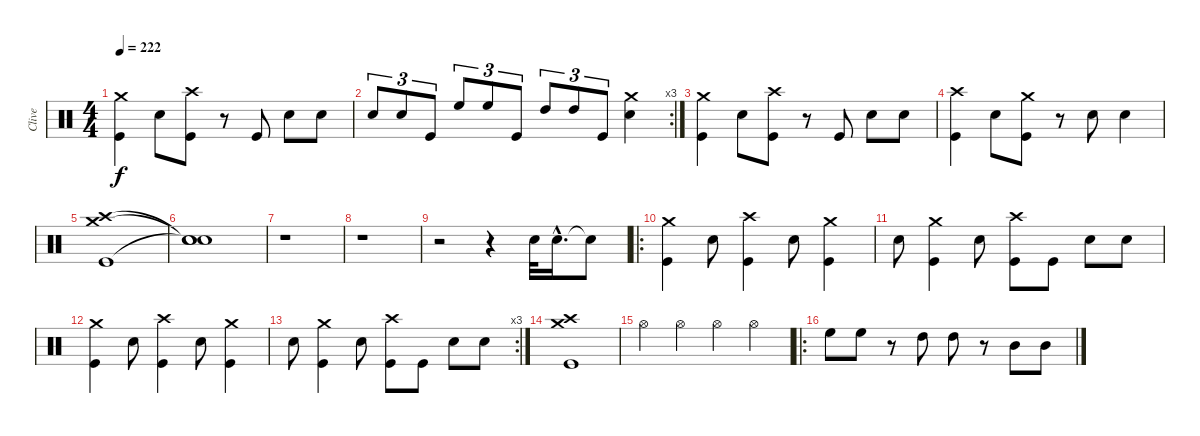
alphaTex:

\track ("Clive" "Clive") {instrument percussion}
\staff {score}
\articulation defaults
\ts (4 4)
\tempo 222
\clef neutral
\ks c
("Crash medium (hit)" "Kick (hit)").4{dy f} "Snare (hit) 2".8 ("Crash high (hit)" "Kick (hit)").8 r.8 "Kick (hit)".8 "Snare (hit) 2".8 "Snare (hit) 2".8 |
\rc 3 "Snare (hit) 2".8{tu (3 2)} "Snare (hit) 2".8{tu (3 2)} "Kick (hit)".8{tu (3 2)} "High Floor Tom (hit)".8{tu (3 2)} "High Floor Tom (hit)".8{tu (3 2)} "Kick (hit)".8{tu (3 2)} "High Tom (hit)".8{tu (3 2)} "High Tom (hit)".8{tu (3 2)} "Kick (hit)".8{tu (3 2)}
("Crash medium (hit)" "Snare (hit) 2").4 |
("Crash medium (hit)" "Kick (hit)").4 "Snare (hit) 2".8 ("Crash high (hit)" "Kick (hit)").8 r.8 "Kick (hit)".8 "Snare (hit) 2".8 "Snare (hit) 2".8 |
("Crash high (hit)" "Kick (hit)").4 "Snare (hit) 2".8 ("Crash medium (hit)" "Kick (hit)").8 r.8 "Snare (hit) 2".8 "Snare (hit) 2".4 |
("Crash medium (hit)" "Crash high (hit)" "Kick (hit)").1 |
("Snare (hit)"{t} "Snare (hit)"{t} "Snare (hit)"{t}).1 |
r.1 |
r.1 |
r.2 r.4 "Snare (hit) 2".32 "Snare (hit) 2"{hac}.16{d} "Snare (hit)"{t}.8 |
\ro
("Crash medium (hit)" "Kick (hit)").4 "Snare (hit) 2".8 ("Crash high (hit)" "Kick (hit)").4 "Snare (hit) 2".8 ("Crash medium (hit)" "Kick (hit)").4 |
"Snare (hit) 2".8 ("Crash medium (hit)" "Kick (hit)").4 "Snare (hit) 2".8 ("Crash high (hit)" "Kick (hit)").8 "Kick (hit)".8 "Snare (hit) 2".8 "Snare (hit) 2".8 |
("Crash medium (hit)" "Kick (hit)").4 "Snare (hit) 2".8 ("Crash high (hit)" "Kick (hit)").4 "Snare (hit) 2".8 ("Crash medium (hit)" "Kick (hit)").4 |
\rc 3 "Snare (hit) 2".8
("Crash medium (hit)" "Kick (hit)").4 "Snare (hit) 2".8 ("Crash high (hit)" "Kick (hit)").8 "Kick (hit)".8 "Snare (hit) 2".8 "Snare (hit) 2".8 |
("Crash medium (hit)" "Crash high (hit)" "Kick (hit)").1 |
"Hi-Hat (open)".4 "Hi-Hat (open)".4 "Hi-Hat (open)".4 "Hi-Hat (open)".4 |
\ro "High Floor Tom (hit)".8 "High Floor Tom (hit)".8
r.8 "High Tom (hit)".8 "High Tom (hit)".8 r.8 "Mid Tom (hit)".8 "Mid Tom (hit)".8
